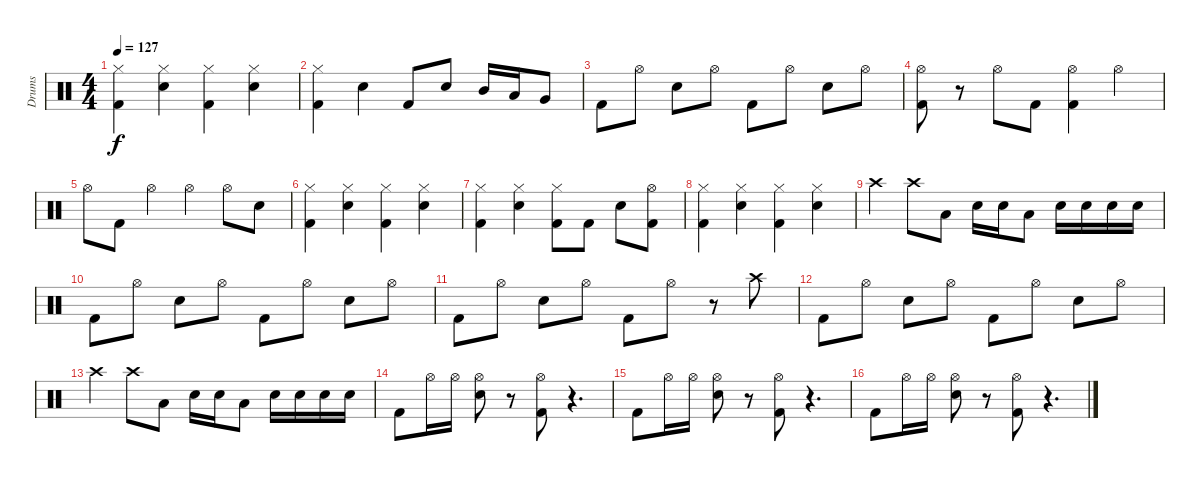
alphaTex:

\track ("Drums" "Drums") {instrument percussion}
\staff {score}
\articulation defaults
\ts (4 4)
\tempo 127
\clef neutral
\ks c
("Hi-Hat (closed)" "Kick (hit) 2").4{dy f} ("Hi-Hat (closed)" "Snare (hit) 2").4 ("Hi-Hat (closed)" "Kick (hit) 2").4 ("Hi-Hat (closed)" "Snare (hit) 2").4 |
("Hi-Hat (closed)" "Kick (hit) 2").4 "Snare (hit) 2".4 "Kick (hit) 2".8 "Snare (hit) 2".8 "Mid Tom (hit)".16 "Low Tom (hit)".16 "Very Low Tom (hit)".8 |
"Kick (hit) 2".8 "Hi-Hat (open)".8 "Snare (hit) 2".8 "Hi-Hat (open)".8 "Kick (hit) 2".8 "Hi-Hat (open)".8 "Snare (hit) 2".8 "Hi-Hat (open)".8 |
("Hi-Hat (open)" "Kick (hit) 2").8 r.8 "Hi-Hat (open)".8 "Kick (hit) 2".8 ("Hi-Hat (open)" "Kick (hit) 2").4 "Hi-Hat (open)".4 |
"Hi-Hat (open)".8 "Kick (hit) 2".8 "Hi-Hat (open)".4 "Hi-Hat (open)".4 "Hi-Hat (open)".8 "Snare (hit) 2".8 |
("Hi-Hat (closed)" "Kick (hit) 2").4 ("Hi-Hat (closed)" "Snare (hit) 2").4 ("Hi-Hat (closed)" "Kick (hit) 2").4 ("Hi-Hat (closed)" "Snare (hit) 2").4 |
("Hi-Hat (closed)" "Kick (hit) 2").4 ("Hi-Hat (closed)" "Snare (hit) 2").4 ("Hi-Hat (closed)" "Kick (hit) 2").8 "Kick (hit) 2".8 "Snare (hit) 2".8 ("Hi-Hat (open)" "Kick (hit) 2").8 |
("Hi-Hat (closed)" "Kick (hit) 2").4 ("Hi-Hat (closed)" "Snare (hit) 2").4 ("Hi-Hat (closed)" "Kick (hit) 2").4 ("Hi-Hat (closed)" "Snare (hit) 2").4 |
"Crash high (hit)".4 "Crash high (hit)".8 "Low Tom (hit)".8 "Snare (hit) 2".16 "Snare (hit) 2".16 "Low Tom (hit)".8 "Snare (hit) 2".16 "Snare (hit) 2".16 "Snare (hit) 2".16 "Snare (hit) 2".16 |
"Kick (hit) 2".8 "Hi-Hat (open)".8 "Snare (hit) 2".8 "Hi-Hat (open)".8 "Kick (hit) 2".8 "Hi-Hat (open)".8 "Snare (hit) 2".8 "Hi-Hat (open)".8 |
"Kick (hit) 2".8 "Hi-Hat (open)".8 "Snare (hit) 2".8 "Hi-Hat (open)".8 "Kick (hit) 2".8 "Hi-Hat (open)".8 r.8 "Crash high (hit)".8 |
"Kick (hit) 2".8 "Hi-Hat (open)".8 "Snare (hit) 2".8 "Hi-Hat (open)".8 "Kick (hit) 2".8 "Hi-Hat (open)".8 "Snare (hit) 2".8 "Hi-Hat (open)".8 |
"Crash high (hit)".4 "Crash high (hit)".8 "Low Tom (hit)".8 "Snare (hit) 2".16 "Snare (hit) 2".16 "Low Tom (hit)".8 "Snare (hit) 2".16 "Snare (hit) 2".16 "Snare (hit) 2".16 "Snare (hit) 2".16 |
"Kick (hit) 2".8 "Hi-Hat (open)".16 "Hi-Hat (open)".16 ("Hi-Hat (open)" "Snare (hit) 2").8 r.8 ("Hi-Hat (open)" "Kick (hit) 2").8 r.4{d} |
"Kick (hit) 2".8 "Hi-Hat (open)".16 "Hi-Hat (open)".16 ("Hi-Hat (open)" "Snare (hit) 2").8 r.8 ("Hi-Hat (open)" "Kick (hit) 2").8 r.4{d} |
"Kick (hit) 2".8 "Hi-Hat (open)".16 "Hi-Hat (open)".16 ("Hi-Hat (open)" "Snare (hit) 2").8 r.8 ("Hi-Hat (open)" "Kick (hit) 2").8 r.4{d}
